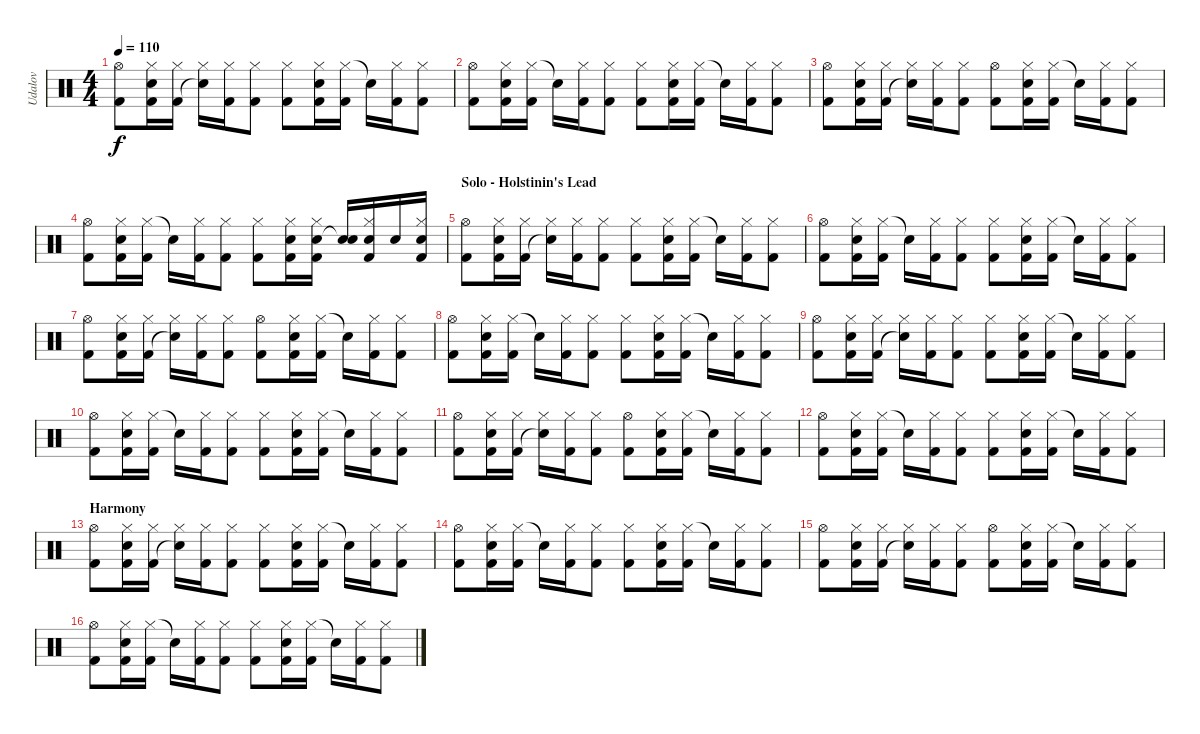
\track ("Udalov" "Udalov") {instrument percussion}
\staff {score}
\articulation defaults
\ts (4 4)
\tempo 110
\clef neutral
\ks c
("Hi-Hat (open)" "Kick (hit) 2").8{dy f} ("Hi-Hat (closed)" "Snare (hit) 2" "Kick (hit) 2").16 ("Hi-Hat (closed)" "Kick (hit) 2").16 ("Hi-Hat (closed)" "Snare (hit)"{t}).16 ("Hi-Hat (closed)" "Kick (hit) 2").16 ("Hi-Hat (closed)" "Kick (hit) 2").8 ("Hi-Hat (closed)" "Kick (hit) 2").8 ("Hi-Hat (closed)" "Snare (hit) 2" "Kick (hit) 2").16 ("Hi-Hat (closed)" "Kick (hit) 2").16 "Snare (hit)"{t}.16 ("Hi-Hat (closed)" "Kick (hit) 2").16 ("Hi-Hat (closed)" "Kick (hit) 2").8 |
("Hi-Hat (open)" "Kick (hit) 2").8 ("Hi-Hat (closed)" "Snare (hit) 2" "Kick (hit) 2").16 ("Hi-Hat (closed)" "Kick (hit) 2").16 "Snare (hit)"{t}.16 ("Hi-Hat (closed)" "Kick (hit) 2").16 ("Hi-Hat (closed)" "Kick (hit) 2").8 ("Hi-Hat (closed)" "Kick (hit) 2").8 ("Hi-Hat (closed)" "Snare (hit) 2" "Kick (hit) 2").16 ("Hi-Hat (closed)" "Kick (hit) 2").16 "Snare (hit)"{t}.16 ("Hi-Hat (closed)" "Kick (hit) 2").16 ("Hi-Hat (closed)" "Kick (hit) 2").8 |
("Hi-Hat (open)" "Kick (hit) 2").8 ("Hi-Hat (closed)" "Snare (hit) 2" "Kick (hit) 2").16 ("Hi-Hat (closed)" "Kick (hit) 2").16 ("Hi-Hat (closed)" "Snare (hit)"{t}).16 ("Hi-Hat (closed)" "Kick (hit) 2").16 ("Hi-Hat (closed)" "Kick (hit) 2").8 ("Hi-Hat (open)" "Kick (hit) 2").8 ("Hi-Hat (closed)" "Snare (hit) 2" "Kick (hit) 2").16 ("Hi-Hat (closed)" "Kick (hit) 2").16 "Snare (hit)"{t}.16 ("Hi-Hat (closed)" "Kick (hit) 2").16 ("Hi-Hat (closed)" "Kick (hit) 2").8 |
("Hi-Hat (open)" "Kick (hit) 2").8 ("Hi-Hat (closed)" "Snare (hit) 2" "Kick (hit) 2").16 ("Hi-Hat (closed)" "Kick (hit) 2").16 "Snare (hit)"{t}.16 ("Hi-Hat (closed)" "Kick (hit) 2").16 ("Hi-Hat (closed)" "Kick (hit) 2").8 ("Hi-Hat (closed)" "Kick (hit) 2").8 ("Hi-Hat (closed)" "Snare (hit) 2" "Kick (hit) 2").16 ("Hi-Hat (closed)" "Snare (hit) 2" "Kick (hit) 2").16 ("Snare (hit) 2" "Snare (hit)"{t}).16 ("Hi-Hat (closed)" "Snare (hit) 2" "Kick (hit) 2").16 "Snare (hit) 2".16 ("Hi-Hat (closed)" "Snare (hit) 2" "Kick (hit) 2").16 |
\section ("" "Solo - Holstinin's Lead")
("Hi-Hat (open)" "Kick (hit) 2").8 ("Hi-Hat (closed)" "Snare (hit) 2" "Kick (hit) 2").16 ("Hi-Hat (closed)" "Kick (hit) 2").16 ("Hi-Hat (closed)" "Snare (hit)"{t}).16 ("Hi-Hat (closed)" "Kick (hit) 2").16 ("Hi-Hat (closed)" "Kick (hit) 2").8 ("Hi-Hat (closed)" "Kick (hit) 2").8 ("Hi-Hat (closed)" "Snare (hit) 2" "Kick (hit) 2").16 ("Hi-Hat (closed)" "Kick (hit) 2").16 "Snare (hit)"{t}.16 ("Hi-Hat (closed)" "Kick (hit) 2").16 ("Hi-Hat (closed)" "Kick (hit) 2").8 |
("Hi-Hat (open)" "Kick (hit) 2").8 ("Hi-Hat (closed)" "Snare (hit) 2" "Kick (hit) 2").16 ("Hi-Hat (closed)" "Kick (hit) 2").16 "Snare (hit)"{t}.16 ("Hi-Hat (closed)" "Kick (hit) 2").16 ("Hi-Hat (closed)" "Kick (hit) 2").8 ("Hi-Hat (closed)" "Kick (hit) 2").8 ("Hi-Hat (closed)" "Snare (hit) 2" "Kick (hit) 2").16 ("Hi-Hat (closed)" "Kick (hit) 2").16 "Snare (hit)"{t}.16 ("Hi-Hat (closed)" "Kick (hit) 2").16 ("Hi-Hat (closed)" "Kick (hit) 2").8 |
("Hi-Hat (open)" "Kick (hit) 2").8 ("Hi-Hat (closed)" "Snare (hit) 2" "Kick (hit) 2").16 ("Hi-Hat (closed)" "Kick (hit) 2").16 ("Hi-Hat (closed)" "Snare (hit)"{t}).16 ("Hi-Hat (closed)" "Kick (hit) 2").16 ("Hi-Hat (closed)" "Kick (hit) 2").8 ("Hi-Hat (open)" "Kick (hit) 2").8 ("Hi-Hat (closed)" "Snare (hit) 2" "Kick (hit) 2").16 ("Hi-Hat (closed)" "Kick (hit) 2").16 "Snare (hit)"{t}.16 ("Hi-Hat (closed)" "Kick (hit) 2").16 ("Hi-Hat (closed)" "Kick (hit) 2").8 |
("Hi-Hat (open)" "Kick (hit) 2").8 ("Hi-Hat (closed)" "Snare (hit) 2" "Kick (hit) 2").16 ("Hi-Hat (closed)" "Kick (hit) 2").16 "Snare (hit)"{t}.16 ("Hi-Hat (closed)" "Kick (hit) 2").16 ("Hi-Hat (closed)" "Kick (hit) 2").8 ("Hi-Hat (closed)" "Kick (hit) 2").8 ("Hi-Hat (closed)" "Snare (hit) 2" "Kick (hit) 2").16 ("Hi-Hat (closed)" "Kick (hit) 2").16 "Snare (hit)"{t}.16 ("Hi-Hat (closed)" "Kick (hit) 2").16 ("Hi-Hat (closed)" "Kick (hit) 2").8 |
("Hi-Hat (open)" "Kick (hit) 2").8 ("Hi-Hat (closed)" "Snare (hit) 2" "Kick (hit) 2").16 ("Hi-Hat (closed)" "Kick (hit) 2").16 ("Hi-Hat (closed)" "Snare (hit)"{t}).16 ("Hi-Hat (closed)" "Kick (hit) 2").16 ("Hi-Hat (closed)" "Kick (hit) 2").8 ("Hi-Hat (closed)" "Kick (hit) 2").8 ("Hi-Hat (closed)" "Snare (hit) 2" "Kick (hit) 2").16 ("Hi-Hat (closed)" "Kick (hit) 2").16 "Snare (hit)"{t}.16 ("Hi-Hat (closed)" "Kick (hit) 2").16 ("Hi-Hat (closed)" "Kick (hit) 2").8 |
("Hi-Hat (open)" "Kick (hit) 2").8 ("Hi-Hat (closed)" "Snare (hit) 2" "Kick (hit) 2").16 ("Hi-Hat (closed)" "Kick (hit) 2").16 "Snare (hit)"{t}.16 ("Hi-Hat (closed)" "Kick (hit) 2").16 ("Hi-Hat (closed)" "Kick (hit) 2").8 ("Hi-Hat (closed)" "Kick (hit) 2").8 ("Hi-Hat (closed)" "Snare (hit) 2" "Kick (hit) 2").16 ("Hi-Hat (closed)" "Kick (hit) 2").16 "Snare (hit)"{t}.16 ("Hi-Hat (closed)" "Kick (hit) 2").16 ("Hi-Hat (closed)" "Kick (hit) 2").8 |
("Hi-Hat (open)" "Kick (hit) 2").8 ("Hi-Hat (closed)" "Snare (hit) 2" "Kick (hit) 2").16 ("Hi-Hat (closed)" "Kick (hit) 2").16 ("Hi-Hat (closed)" "Snare (hit)"{t}).16 ("Hi-Hat (closed)" "Kick (hit) 2").16 ("Hi-Hat (closed)" "Kick (hit) 2").8 ("Hi-Hat (open)" "Kick (hit) 2").8 ("Hi-Hat (closed)" "Snare (hit) 2" "Kick (hit) 2").16 ("Hi-Hat (closed)" "Kick (hit) 2").16 "Snare (hit)"{t}.16 ("Hi-Hat (closed)" "Kick (hit) 2").16 ("Hi-Hat (closed)" "Kick (hit) 2").8 |
("Hi-Hat (open)" "Kick (hit) 2").8 ("Hi-Hat (closed)" "Snare (hit) 2" "Kick (hit) 2").16 ("Hi-Hat (closed)" "Kick (hit) 2").16 "Snare (hit)"{t}.16 ("Hi-Hat (closed)" "Kick (hit) 2").16 ("Hi-Hat (closed)" "Kick (hit) 2").8 ("Hi-Hat (closed)" "Kick (hit) 2").8 ("Hi-Hat (closed)" "Snare (hit) 2" "Kick (hit) 2").16 ("Hi-Hat (closed)" "Kick (hit) 2").16 "Snare (hit)"{t}.16 ("Hi-Hat (closed)" "Kick (hit) 2").16 ("Hi-Hat (closed)" "Kick (hit) 2").8 |
\section ("" "Harmony")
("Hi-Hat (open)" "Kick (hit) 2").8 ("Hi-Hat (closed)" "Snare (hit) 2" "Kick (hit) 2").16 ("Hi-Hat (closed)" "Kick (hit) 2").16 ("Hi-Hat (closed)" "Snare (hit)"{t}).16 ("Hi-Hat (closed)" "Kick (hit) 2").16 ("Hi-Hat (closed)" "Kick (hit) 2").8 ("Hi-Hat (closed)" "Kick (hit) 2").8 ("Hi-Hat (closed)" "Snare (hit) 2" "Kick (hit) 2").16 ("Hi-Hat (closed)" "Kick (hit) 2").16 "Snare (hit)"{t}.16 ("Hi-Hat (closed)" "Kick (hit) 2").16 ("Hi-Hat (closed)" "Kick (hit) 2").8 |
("Hi-Hat (open)" "Kick (hit) 2").8 ("Hi-Hat (closed)" "Snare (hit) 2" "Kick (hit) 2").16 ("Hi-Hat (closed)" "Kick (hit) 2").16 "Snare (hit)"{t}.16 ("Hi-Hat (closed)" "Kick (hit) 2").16 ("Hi-Hat (closed)" "Kick (hit) 2").8 ("Hi-Hat (closed)" "Kick (hit) 2").8 ("Hi-Hat (closed)" "Snare (hit) 2" "Kick (hit) 2").16 ("Hi-Hat (closed)" "Kick (hit) 2").16 "Snare (hit)"{t}.16 ("Hi-Hat (closed)" "Kick (hit) 2").16 ("Hi-Hat (closed)" "Kick (hit) 2").8 |
("Hi-Hat (open)" "Kick (hit) 2").8 ("Hi-Hat (closed)" "Snare (hit) 2" "Kick (hit) 2").16 ("Hi-Hat (closed)" "Kick (hit) 2").16 ("Hi-Hat (closed)" "Snare (hit)"{t}).16 ("Hi-Hat (closed)" "Kick (hit) 2").16 ("Hi-Hat (closed)" "Kick (hit) 2").8 ("Hi-Hat (open)" "Kick (hit) 2").8 ("Hi-Hat (closed)" "Snare (hit) 2" "Kick (hit) 2").16 ("Hi-Hat (closed)" "Kick (hit) 2").16 "Snare (hit)"{t}.16 ("Hi-Hat (closed)" "Kick (hit) 2").16 ("Hi-Hat (closed)" "Kick (hit) 2").8 |
("Hi-Hat (open)" "Kick (hit) 2").8 ("Hi-Hat (closed)" "Snare (hit) 2" "Kick (hit) 2").16 ("Hi-Hat (closed)" "Kick (hit) 2").16 "Snare (hit)"{t}.16 ("Hi-Hat (closed)" "Kick (hit) 2").16 ("Hi-Hat (closed)" "Kick (hit) 2").8 ("Hi-Hat (closed)" "Kick (hit) 2").8 ("Hi-Hat (closed)" "Snare (hit) 2" "Kick (hit) 2").16 ("Hi-Hat (closed)" "Kick (hit) 2").16 "Snare (hit)"{t}.16 ("Hi-Hat (closed)" "Kick (hit) 2").16 ("Hi-Hat (closed)" "Kick (hit) 2").8
